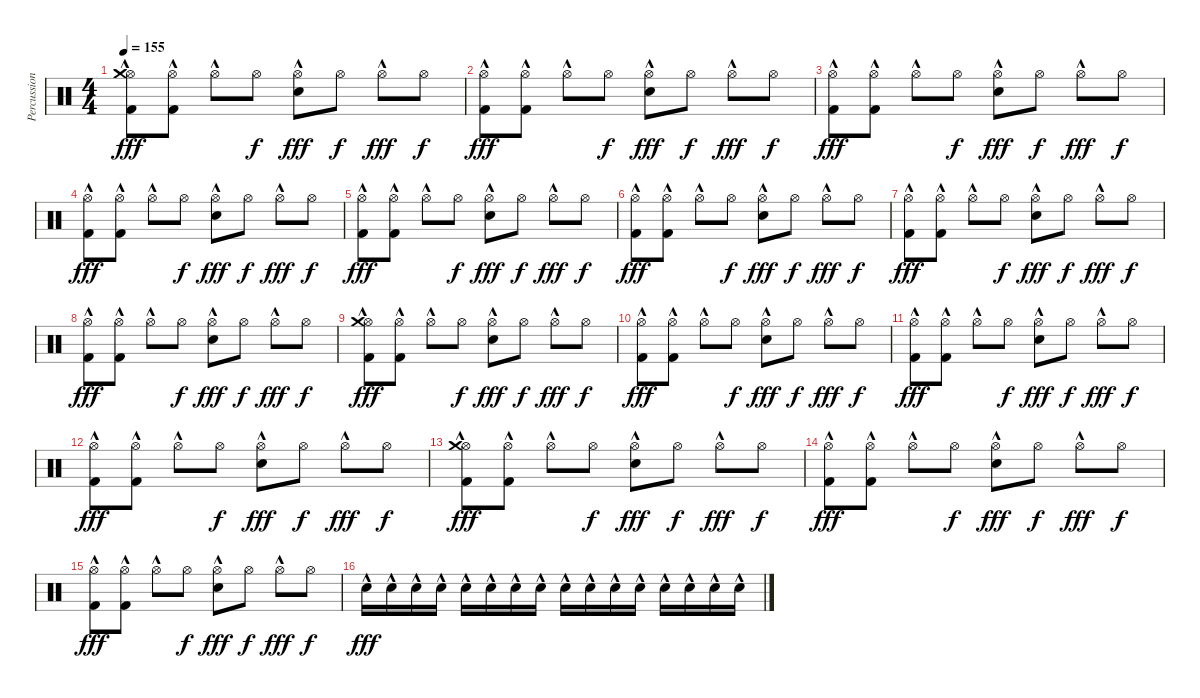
\track ("Percussion" "Percussion") {instrument percussion}
\staff {score}
\articulation defaults
\ts (4 4)
\tempo 155
\clef neutral
\ks c
("Hi-Hat (open)"{hac} "Crash medium (hit)"{hac} "Kick (hit) 2"{hac}).8{dy fff} ("Hi-Hat (open)" "Kick (hit) 2"{hac}).8 "Hi-Hat (open)"{hac}.8 "Hi-Hat (open)".8{dy f} ("Hi-Hat (open)"{hac} "Electric Snare (hit)"{hac}).8{dy fff} "Hi-Hat (open)".8{dy f} "Hi-Hat (open)"{hac}.8{dy fff} "Hi-Hat (open)".8{dy f} |
("Hi-Hat (open)"{hac} "Kick (hit) 2"{hac}).8{dy fff} ("Hi-Hat (open)" "Kick (hit) 2"{hac}).8 "Hi-Hat (open)"{hac}.8 "Hi-Hat (open)".8{dy f} ("Hi-Hat (open)"{hac} "Electric Snare (hit)"{hac}).8{dy fff} "Hi-Hat (open)".8{dy f} "Hi-Hat (open)"{hac}.8{dy fff} "Hi-Hat (open)".8{dy f} |
("Hi-Hat (open)"{hac} "Kick (hit) 2"{hac}).8{dy fff} ("Hi-Hat (open)" "Kick (hit) 2"{hac}).8 "Hi-Hat (open)"{hac}.8 "Hi-Hat (open)".8{dy f} ("Hi-Hat (open)"{hac} "Electric Snare (hit)"{hac}).8{dy fff} "Hi-Hat (open)".8{dy f} "Hi-Hat (open)"{hac}.8{dy fff} "Hi-Hat (open)".8{dy f} |
("Hi-Hat (open)"{hac} "Kick (hit) 2"{hac}).8{dy fff} ("Hi-Hat (open)" "Kick (hit) 2"{hac}).8 "Hi-Hat (open)"{hac}.8 "Hi-Hat (open)".8{dy f} ("Hi-Hat (open)"{hac} "Electric Snare (hit)"{hac}).8{dy fff} "Hi-Hat (open)".8{dy f} "Hi-Hat (open)"{hac}.8{dy fff} "Hi-Hat (open)".8{dy f} |
("Hi-Hat (open)"{hac} "Kick (hit) 2"{hac}).8{dy fff} ("Hi-Hat (open)" "Kick (hit) 2"{hac}).8 "Hi-Hat (open)"{hac}.8 "Hi-Hat (open)".8{dy f} ("Hi-Hat (open)"{hac} "Electric Snare (hit)"{hac}).8{dy fff} "Hi-Hat (open)".8{dy f} "Hi-Hat (open)"{hac}.8{dy fff} "Hi-Hat (open)".8{dy f} |
("Hi-Hat (open)"{hac} "Kick (hit) 2"{hac}).8{dy fff} ("Hi-Hat (open)" "Kick (hit) 2"{hac}).8 "Hi-Hat (open)"{hac}.8 "Hi-Hat (open)".8{dy f} ("Hi-Hat (open)"{hac} "Electric Snare (hit)"{hac}).8{dy fff} "Hi-Hat (open)".8{dy f} "Hi-Hat (open)"{hac}.8{dy fff} "Hi-Hat (open)".8{dy f} |
("Hi-Hat (open)"{hac} "Kick (hit) 2"{hac}).8{dy fff} ("Hi-Hat (open)" "Kick (hit) 2"{hac}).8 "Hi-Hat (open)"{hac}.8 "Hi-Hat (open)".8{dy f} ("Hi-Hat (open)"{hac} "Electric Snare (hit)"{hac}).8{dy fff} "Hi-Hat (open)".8{dy f} "Hi-Hat (open)"{hac}.8{dy fff} "Hi-Hat (open)".8{dy f} |
("Hi-Hat (open)"{hac} "Kick (hit) 2"{hac}).8{dy fff} ("Hi-Hat (open)" "Kick (hit) 2"{hac}).8 "Hi-Hat (open)"{hac}.8 "Hi-Hat (open)".8{dy f} ("Hi-Hat (open)"{hac} "Electric Snare (hit)"{hac}).8{dy fff} "Hi-Hat (open)".8{dy f} "Hi-Hat (open)"{hac}.8{dy fff} "Hi-Hat (open)".8{dy f} |
("Hi-Hat (open)"{hac} "Crash medium (hit)"{hac} "Kick (hit) 2"{hac}).8{dy fff} ("Hi-Hat (open)" "Kick (hit) 2"{hac}).8 "Hi-Hat (open)"{hac}.8 "Hi-Hat (open)".8{dy f} ("Hi-Hat (open)"{hac} "Electric Snare (hit)"{hac}).8{dy fff} "Hi-Hat (open)".8{dy f} "Hi-Hat (open)"{hac}.8{dy fff} "Hi-Hat (open)".8{dy f} |
("Hi-Hat (open)"{hac} "Kick (hit) 2"{hac}).8{dy fff} ("Hi-Hat (open)" "Kick (hit) 2"{hac}).8 "Hi-Hat (open)"{hac}.8 "Hi-Hat (open)".8{dy f} ("Hi-Hat (open)"{hac} "Electric Snare (hit)"{hac}).8{dy fff} "Hi-Hat (open)".8{dy f} "Hi-Hat (open)"{hac}.8{dy fff} "Hi-Hat (open)".8{dy f} |
("Hi-Hat (open)"{hac} "Kick (hit) 2"{hac}).8{dy fff} ("Hi-Hat (open)" "Kick (hit) 2"{hac}).8 "Hi-Hat (open)"{hac}.8 "Hi-Hat (open)".8{dy f} ("Hi-Hat (open)"{hac} "Electric Snare (hit)"{hac}).8{dy fff} "Hi-Hat (open)".8{dy f} "Hi-Hat (open)"{hac}.8{dy fff} "Hi-Hat (open)".8{dy f} |
("Hi-Hat (open)"{hac} "Kick (hit) 2"{hac}).8{dy fff} ("Hi-Hat (open)" "Kick (hit) 2"{hac}).8 "Hi-Hat (open)"{hac}.8 "Hi-Hat (open)".8{dy f} ("Hi-Hat (open)"{hac} "Electric Snare (hit)"{hac}).8{dy fff} "Hi-Hat (open)".8{dy f} "Hi-Hat (open)"{hac}.8{dy fff} "Hi-Hat (open)".8{dy f} |
("Hi-Hat (open)"{hac} "Crash medium (hit)"{hac} "Kick (hit) 2"{hac}).8{dy fff} ("Hi-Hat (open)" "Kick (hit) 2"{hac}).8 "Hi-Hat (open)"{hac}.8 "Hi-Hat (open)".8{dy f} ("Hi-Hat (open)"{hac} "Electric Snare (hit)"{hac}).8{dy fff} "Hi-Hat (open)".8{dy f} "Hi-Hat (open)"{hac}.8{dy fff} "Hi-Hat (open)".8{dy f} |
("Hi-Hat (open)"{hac} "Kick (hit) 2"{hac}).8{dy fff} ("Hi-Hat (open)" "Kick (hit) 2"{hac}).8 "Hi-Hat (open)"{hac}.8 "Hi-Hat (open)".8{dy f} ("Hi-Hat (open)"{hac} "Electric Snare (hit)"{hac}).8{dy fff} "Hi-Hat (open)".8{dy f} "Hi-Hat (open)"{hac}.8{dy fff} "Hi-Hat (open)".8{dy f} |
("Hi-Hat (open)"{hac} "Kick (hit) 2"{hac}).8{dy fff} ("Hi-Hat (open)" "Kick (hit) 2"{hac}).8 "Hi-Hat (open)"{hac}.8 "Hi-Hat (open)".8{dy f} ("Hi-Hat (open)"{hac} "Electric Snare (hit)"{hac}).8{dy fff} "Hi-Hat (open)".8{dy f} "Hi-Hat (open)"{hac}.8{dy fff} "Hi-Hat (open)".8{dy f} |
"Electric Snare (hit)"{hac}.16{dy fff} "Electric Snare (hit)"{hac}.16 "Electric Snare (hit)"{hac}.16 "Electric Snare (hit)"{hac}.16 "Electric Snare (hit)"{hac}.16 "Electric Snare (hit)"{hac}.16 "Electric Snare (hit)"{hac}.16 "Electric Snare (hit)"{hac}.16 "Electric Snare (hit)"{hac}.16 "Electric Snare (hit)"{hac}.16 "Electric Snare (hit)"{hac}.16 "Electric Snare (hit)"{hac}.16 "Electric Snare (hit)"{hac}.16 "Electric Snare (hit)"{hac}.16 "Electric Snare (hit)"{hac}.16 "Electric Snare (hit)"{hac}.16
